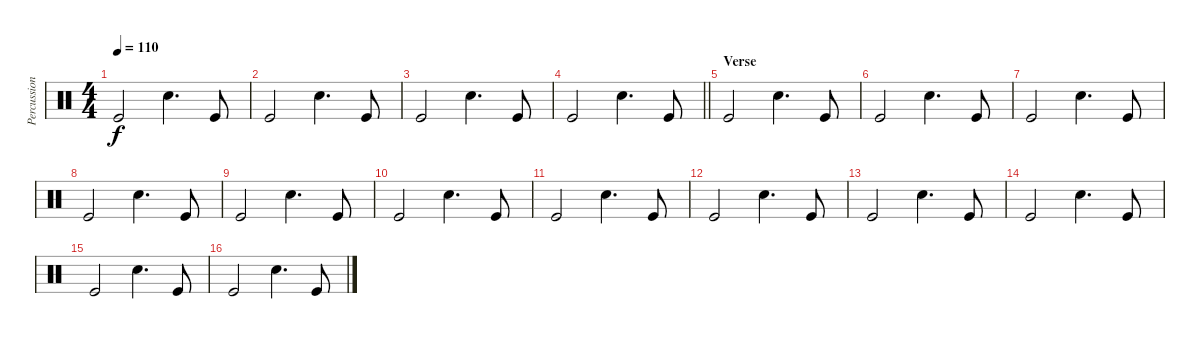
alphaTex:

\track ("Percussion" "Percussion") {instrument percussion}
\staff {score}
\articulation defaults
\ts (4 4)
\tempo 110
\clef neutral
\ks c "Kick (hit)".2{dy f} "Electric Snare (hit)".4{d} "Kick (hit)".8
|
"Kick (hit)".2 "Electric Snare (hit)".4{d} "Kick (hit)".8 |
"Kick (hit)".2 "Electric Snare (hit)".4{d} "Kick (hit)".8 |
\barLineRight lightlight "Kick (hit)".2 "Electric Snare (hit)".4{d} "Kick (hit)".8
|
\section ("" "Verse")
"Kick (hit)".2 "Electric Snare (hit)".4{d} "Kick (hit)".8 |
"Kick (hit)".2 "Electric Snare (hit)".4{d} "Kick (hit)".8 |
"Kick (hit)".2 "Electric Snare (hit)".4{d} "Kick (hit)".8 |
"Kick (hit)".2 "Electric Snare (hit)".4{d} "Kick (hit)".8 |
"Kick (hit)".2 "Electric Snare (hit)".4{d} "Kick (hit)".8 |
"Kick (hit)".2 "Electric Snare (hit)".4{d} "Kick (hit)".8 |
"Kick (hit)".2 "Electric Snare (hit)".4{d} "Kick (hit)".8 |
"Kick (hit)".2 "Electric Snare (hit)".4{d} "Kick (hit)".8 |
"Kick (hit)".2 "Electric Snare (hit)".4{d} "Kick (hit)".8 |
"Kick (hit)".2 "Electric Snare (hit)".4{d} "Kick (hit)".8 |
"Kick (hit)".2 "Electric Snare (hit)".4{d} "Kick (hit)".8 |
"Kick (hit)".2 "Electric Snare (hit)".4{d} "Kick (hit)".8
